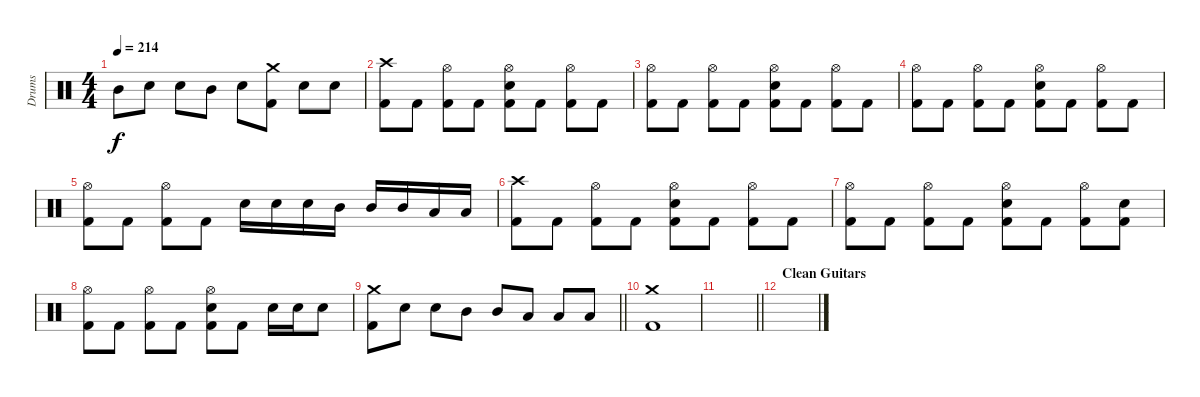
\track ("Drums" "Drums") {instrument percussion}
\staff {score}
\articulation defaults
\ts (4 4)
\tempo 214
\clef neutral
\ks c "Mid Tom (hit)".8{dy f} "Snare (hit) 2".8 "Snare (hit) 2".8 "Mid Tom (hit)".8 "Snare (hit) 2".8
("Crash medium (hit)" "Kick (hit) 2").8 "Snare (hit) 2".8 "Snare (hit) 2".8 |
("Crash high (hit)" "Kick (hit) 2").8 "Kick (hit) 2".8 ("Hi-Hat (open)" "Kick (hit) 2").8 "Kick (hit) 2".8 ("Hi-Hat (open)" "Snare (hit) 2" "Kick (hit) 2").8 "Kick (hit) 2".8 ("Hi-Hat (open)" "Kick (hit) 2").8 "Kick (hit) 2".8 |
("Hi-Hat (open)" "Kick (hit) 2").8 "Kick (hit) 2".8 ("Hi-Hat (open)" "Kick (hit) 2").8 "Kick (hit) 2".8 ("Hi-Hat (open)" "Snare (hit) 2" "Kick (hit) 2").8 "Kick (hit) 2".8 ("Hi-Hat (open)" "Kick (hit) 2").8 "Kick (hit) 2".8 |
("Hi-Hat (open)" "Kick (hit) 2").8 "Kick (hit) 2".8 ("Hi-Hat (open)" "Kick (hit) 2").8 "Kick (hit) 2".8 ("Hi-Hat (open)" "Snare (hit) 2" "Kick (hit) 2").8 "Kick (hit) 2".8 ("Hi-Hat (open)" "Kick (hit) 2").8 "Kick (hit) 2".8 |
("Hi-Hat (open)" "Kick (hit) 2").8 "Kick (hit) 2".8 ("Hi-Hat (open)" "Kick (hit) 2").8 "Kick (hit) 2".8 "Snare (hit) 2".16 "Snare (hit) 2".16 "Snare (hit) 2".16 "Mid Tom (hit)".16 "Mid Tom (hit)".16 "Mid Tom (hit)".16 "Low Tom (hit)".16 "Low Tom (hit)".16 |
("Crash high (hit)" "Kick (hit) 2").8 "Kick (hit) 2".8 ("Hi-Hat (open)" "Kick (hit) 2").8 "Kick (hit) 2".8 ("Hi-Hat (open)" "Snare (hit) 2" "Kick (hit) 2").8 "Kick (hit) 2".8 ("Hi-Hat (open)" "Kick (hit) 2").8 "Kick (hit) 2".8 |
("Hi-Hat (open)" "Kick (hit) 2").8 "Kick (hit) 2".8 ("Hi-Hat (open)" "Kick (hit) 2").8 "Kick (hit) 2".8 ("Hi-Hat (open)" "Snare (hit) 2" "Kick (hit) 2").8 "Kick (hit) 2".8 ("Hi-Hat (open)" "Kick (hit) 2").8 ("Snare (hit) 2" "Kick (hit) 2").8 |
("Hi-Hat (open)" "Kick (hit) 2").8 "Kick (hit) 2".8 ("Hi-Hat (open)" "Kick (hit) 2").8 "Kick (hit) 2".8 ("Hi-Hat (open)" "Snare (hit) 2" "Kick (hit) 2").8 "Kick (hit) 2".8 "Snare (hit) 2".16 "Snare (hit) 2".16 "Snare (hit) 2".8 |
\barLineRight lightlight
("Crash medium (hit)" "Kick (hit) 2").8 "Snare (hit) 2".8 "Snare (hit) 2".8 "Mid Tom (hit)".8 "Mid Tom (hit)".8 "Low Tom (hit)".8 "Low Tom (hit)".8 "Low Tom (hit)".8 |
("Crash medium (hit)" "Kick (hit) 2").1 |
\barLineRight lightlight
|
\section ("" "Clean Guitars")
